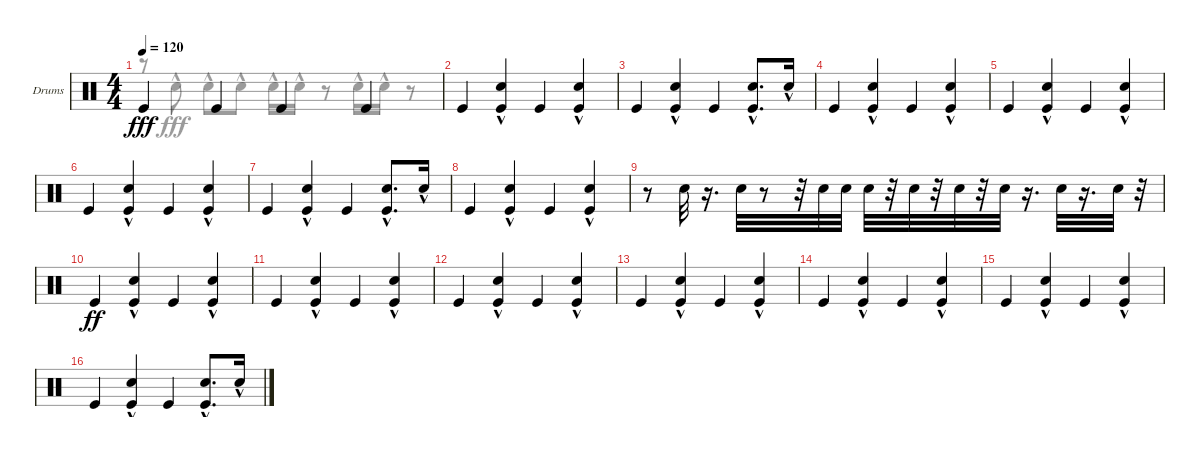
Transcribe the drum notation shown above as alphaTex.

\defaultSystemsLayout 4
\bracketExtendMode nobrackets
\firstSystemTrackNameOrientation horizontal
\otherSystemsTrackNameOrientation horizontal
\track ("Drumkit" "Drums") {instrument percussion}
\staff {score}
\articulation defaults
\voice
\ts (4 4)
\tempo 120
\clef neutral
\ks c "Kick (hit)".4{dy fff} "Kick (hit)".4 "Kick (hit)".4 "Kick (hit)".4
|
"Kick (hit)".4 ("Kick (hit)" "Snare (hit) 2"{hac}).4 "Kick (hit)".4 ("Kick (hit)" "Snare (hit) 2"{hac}).4 |
"Kick (hit)".4 ("Kick (hit)" "Snare (hit) 2"{hac}).4 "Kick (hit)".4 ("Kick (hit)" "Snare (hit) 2"{hac}).8{d} "Snare (hit) 2"{hac}.16 |
"Kick (hit)".4 ("Kick (hit)" "Snare (hit) 2"{hac}).4 "Kick (hit)".4 ("Kick (hit)" "Snare (hit) 2"{hac}).4 |
"Kick (hit)".4 ("Kick (hit)" "Snare (hit) 2"{hac}).4 "Kick (hit)".4 ("Kick (hit)" "Snare (hit) 2"{hac}).4 |
"Kick (hit)".4 ("Kick (hit)" "Snare (hit) 2"{hac}).4 "Kick (hit)".4 ("Kick (hit)" "Snare (hit) 2"{hac}).4 |
"Kick (hit)".4 ("Kick (hit)" "Snare (hit) 2"{hac}).4 "Kick (hit)".4 ("Kick (hit)" "Snare (hit) 2"{hac}).8{d} "Snare (hit) 2"{hac}.16 |
"Kick (hit)".4 ("Kick (hit)" "Snare (hit) 2"{hac}).4 "Kick (hit)".4 ("Kick (hit)" "Snare (hit) 2"{hac}).4 |
r.8 "Snare (hit) 2".32 r.16{d} "Snare (hit) 2".32 r.8 r.32 "Snare (hit) 2".32 "Snare (hit) 2".32 "Snare (hit) 2".32 r.32 "Snare (hit) 2".32 r.32 "Snare (hit) 2".32 r.32 "Snare (hit) 2".32 r.16{d} "Snare (hit) 2".32 r.16{d} "Snare (hit) 2".32 r.32 |
"Kick (hit)".4{dy ff} ("Kick (hit)" "Snare (hit) 2"{hac}).4 "Kick (hit)".4 ("Kick (hit)" "Snare (hit) 2"{hac}).4 |
"Kick (hit)".4 ("Kick (hit)" "Snare (hit) 2"{hac}).4 "Kick (hit)".4 ("Kick (hit)" "Snare (hit) 2"{hac}).4 |
"Kick (hit)".4 ("Kick (hit)" "Snare (hit) 2"{hac}).4 "Kick (hit)".4 ("Kick (hit)" "Snare (hit) 2"{hac}).4 |
"Kick (hit)".4 ("Kick (hit)" "Snare (hit) 2"{hac}).4 "Kick (hit)".4 ("Kick (hit)" "Snare (hit) 2"{hac}).4 |
"Kick (hit)".4 ("Kick (hit)" "Snare (hit) 2"{hac}).4 "Kick (hit)".4 ("Kick (hit)" "Snare (hit) 2"{hac}).4 |
"Kick (hit)".4 ("Kick (hit)" "Snare (hit) 2"{hac}).4 "Kick (hit)".4 ("Kick (hit)" "Snare (hit) 2"{hac}).4 |
"Kick (hit)".4 ("Kick (hit)" "Snare (hit) 2"{hac}).4 "Kick (hit)".4 ("Kick (hit)" "Snare (hit) 2"{hac}).8{d} "Snare (hit) 2"{hac}.16
\voice
\clef neutral
\ottava regular
\simile none
\ks c
r.8{dy fff} "Snare (hit) 2"{hac}.8 "Snare (hit) 2"{hac}.8 "Snare (hit) 2"{hac}.8 "Snare (hit) 2"{hac}.16 "Snare (hit) 2"{hac}.16 r.8 "Snare (hit) 2"{hac}.16 "Snare (hit) 2"{hac}.16 r.8 |
|
|
|
|
|
|
|
|
|
|
|
|
|
|
